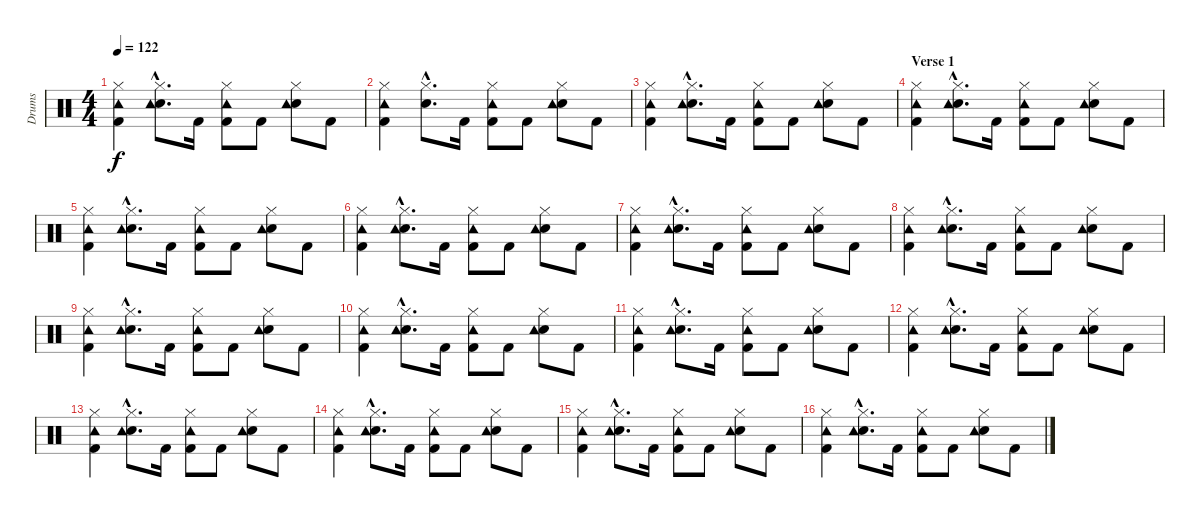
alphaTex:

\track ("Drums" "Drums") {instrument percussion}
\staff {score}
\articulation defaults
\ts (4 4)
\tempo 122
\clef neutral
\ks c
("Hi-Hat (closed)" "Kick (hit) 2" "Tambourine (hit)").4{dy f} ("Hi-Hat (closed)"{hac} "Electric Snare (hit)"{hac} "Tambourine (hit)"{hac}).8{d} "Kick (hit) 2".16 ("Hi-Hat (closed)" "Kick (hit) 2" "Tambourine (hit)").8 "Kick (hit) 2".8 ("Hi-Hat (closed)" "Electric Snare (hit)" "Tambourine (hit)").8 "Kick (hit) 2".8 |
("Hi-Hat (closed)" "Kick (hit) 2" "Tambourine (hit)").4 ("Hi-Hat (closed)"{hac} "Electric Snare (hit)"{hac}).8{d} "Kick (hit) 2".16 ("Hi-Hat (closed)" "Kick (hit) 2" "Tambourine (hit)").8 "Kick (hit) 2".8 ("Hi-Hat (closed)" "Electric Snare (hit)" "Tambourine (hit)").8 "Kick (hit) 2".8 |
("Hi-Hat (closed)" "Kick (hit) 2" "Tambourine (hit)").4 ("Hi-Hat (closed)"{hac} "Electric Snare (hit)"{hac} "Tambourine (hit)"{hac}).8{d} "Kick (hit) 2".16 ("Hi-Hat (closed)" "Kick (hit) 2" "Tambourine (hit)").8 "Kick (hit) 2".8 ("Hi-Hat (closed)" "Electric Snare (hit)" "Tambourine (hit)").8 "Kick (hit) 2".8 |
\section ("" "Verse 1")
("Hi-Hat (closed)" "Kick (hit) 2" "Tambourine (hit)").4 ("Hi-Hat (closed)"{hac} "Electric Snare (hit)"{hac} "Tambourine (hit)"{hac}).8{d} "Kick (hit) 2".16 ("Hi-Hat (closed)" "Kick (hit) 2" "Tambourine (hit)").8 "Kick (hit) 2".8 ("Hi-Hat (closed)" "Electric Snare (hit)" "Tambourine (hit)").8 "Kick (hit) 2".8 |
("Hi-Hat (closed)" "Kick (hit) 2" "Tambourine (hit)").4 ("Hi-Hat (closed)"{hac} "Electric Snare (hit)"{hac} "Tambourine (hit)"{hac}).8{d} "Kick (hit) 2".16 ("Hi-Hat (closed)" "Kick (hit) 2" "Tambourine (hit)").8 "Kick (hit) 2".8 ("Hi-Hat (closed)" "Electric Snare (hit)" "Tambourine (hit)").8 "Kick (hit) 2".8 |
("Hi-Hat (closed)" "Kick (hit) 2" "Tambourine (hit)").4 ("Hi-Hat (closed)"{hac} "Electric Snare (hit)"{hac} "Tambourine (hit)"{hac}).8{d} "Kick (hit) 2".16 ("Hi-Hat (closed)" "Kick (hit) 2" "Tambourine (hit)").8 "Kick (hit) 2".8 ("Hi-Hat (closed)" "Electric Snare (hit)" "Tambourine (hit)").8 "Kick (hit) 2".8 |
("Hi-Hat (closed)" "Kick (hit) 2" "Tambourine (hit)").4 ("Hi-Hat (closed)"{hac} "Electric Snare (hit)"{hac} "Tambourine (hit)"{hac}).8{d} "Kick (hit) 2".16 ("Hi-Hat (closed)" "Kick (hit) 2" "Tambourine (hit)").8 "Kick (hit) 2".8 ("Hi-Hat (closed)" "Electric Snare (hit)" "Tambourine (hit)").8 "Kick (hit) 2".8 |
("Hi-Hat (closed)" "Kick (hit) 2" "Tambourine (hit)").4 ("Hi-Hat (closed)"{hac} "Electric Snare (hit)"{hac} "Tambourine (hit)"{hac}).8{d} "Kick (hit) 2".16 ("Hi-Hat (closed)" "Kick (hit) 2" "Tambourine (hit)").8 "Kick (hit) 2".8 ("Hi-Hat (closed)" "Electric Snare (hit)" "Tambourine (hit)").8 "Kick (hit) 2".8 |
("Hi-Hat (closed)" "Kick (hit) 2" "Tambourine (hit)").4 ("Hi-Hat (closed)"{hac} "Electric Snare (hit)"{hac} "Tambourine (hit)"{hac}).8{d} "Kick (hit) 2".16 ("Hi-Hat (closed)" "Kick (hit) 2" "Tambourine (hit)").8 "Kick (hit) 2".8 ("Hi-Hat (closed)" "Electric Snare (hit)" "Tambourine (hit)").8 "Kick (hit) 2".8 |
("Hi-Hat (closed)" "Kick (hit) 2" "Tambourine (hit)").4 ("Hi-Hat (closed)"{hac} "Electric Snare (hit)"{hac} "Tambourine (hit)"{hac}).8{d} "Kick (hit) 2".16 ("Hi-Hat (closed)" "Kick (hit) 2" "Tambourine (hit)").8 "Kick (hit) 2".8 ("Hi-Hat (closed)" "Electric Snare (hit)" "Tambourine (hit)").8 "Kick (hit) 2".8 |
("Hi-Hat (closed)" "Kick (hit) 2" "Tambourine (hit)").4 ("Hi-Hat (closed)"{hac} "Electric Snare (hit)"{hac} "Tambourine (hit)"{hac}).8{d} "Kick (hit) 2".16 ("Hi-Hat (closed)" "Kick (hit) 2" "Tambourine (hit)").8 "Kick (hit) 2".8 ("Hi-Hat (closed)" "Electric Snare (hit)" "Tambourine (hit)").8 "Kick (hit) 2".8 |
("Hi-Hat (closed)" "Kick (hit) 2" "Tambourine (hit)").4 ("Hi-Hat (closed)"{hac} "Electric Snare (hit)"{hac} "Tambourine (hit)"{hac}).8{d} "Kick (hit) 2".16 ("Hi-Hat (closed)" "Kick (hit) 2" "Tambourine (hit)").8 "Kick (hit) 2".8 ("Hi-Hat (closed)" "Electric Snare (hit)" "Tambourine (hit)").8 "Kick (hit) 2".8 |
("Hi-Hat (closed)" "Kick (hit) 2" "Tambourine (hit)").4 ("Hi-Hat (closed)"{hac} "Electric Snare (hit)"{hac} "Tambourine (hit)"{hac}).8{d} "Kick (hit) 2".16 ("Hi-Hat (closed)" "Kick (hit) 2" "Tambourine (hit)").8 "Kick (hit) 2".8 ("Hi-Hat (closed)" "Electric Snare (hit)" "Tambourine (hit)").8 "Kick (hit) 2".8 |
("Hi-Hat (closed)" "Kick (hit) 2" "Tambourine (hit)").4 ("Hi-Hat (closed)"{hac} "Electric Snare (hit)"{hac} "Tambourine (hit)"{hac}).8{d} "Kick (hit) 2".16 ("Hi-Hat (closed)" "Kick (hit) 2" "Tambourine (hit)").8 "Kick (hit) 2".8 ("Hi-Hat (closed)" "Electric Snare (hit)" "Tambourine (hit)").8 "Kick (hit) 2".8 |
("Hi-Hat (closed)" "Kick (hit) 2" "Tambourine (hit)").4 ("Hi-Hat (closed)"{hac} "Electric Snare (hit)"{hac} "Tambourine (hit)"{hac}).8{d} "Kick (hit) 2".16 ("Hi-Hat (closed)" "Kick (hit) 2" "Tambourine (hit)").8 "Kick (hit) 2".8 ("Hi-Hat (closed)" "Electric Snare (hit)" "Tambourine (hit)").8 "Kick (hit) 2".8 |
("Hi-Hat (closed)" "Kick (hit) 2" "Tambourine (hit)").4 ("Hi-Hat (closed)"{hac} "Electric Snare (hit)"{hac} "Tambourine (hit)"{hac}).8{d} "Kick (hit) 2".16 ("Hi-Hat (closed)" "Kick (hit) 2" "Tambourine (hit)").8 "Kick (hit) 2".8 ("Hi-Hat (closed)" "Electric Snare (hit)" "Tambourine (hit)").8 "Kick (hit) 2".8
